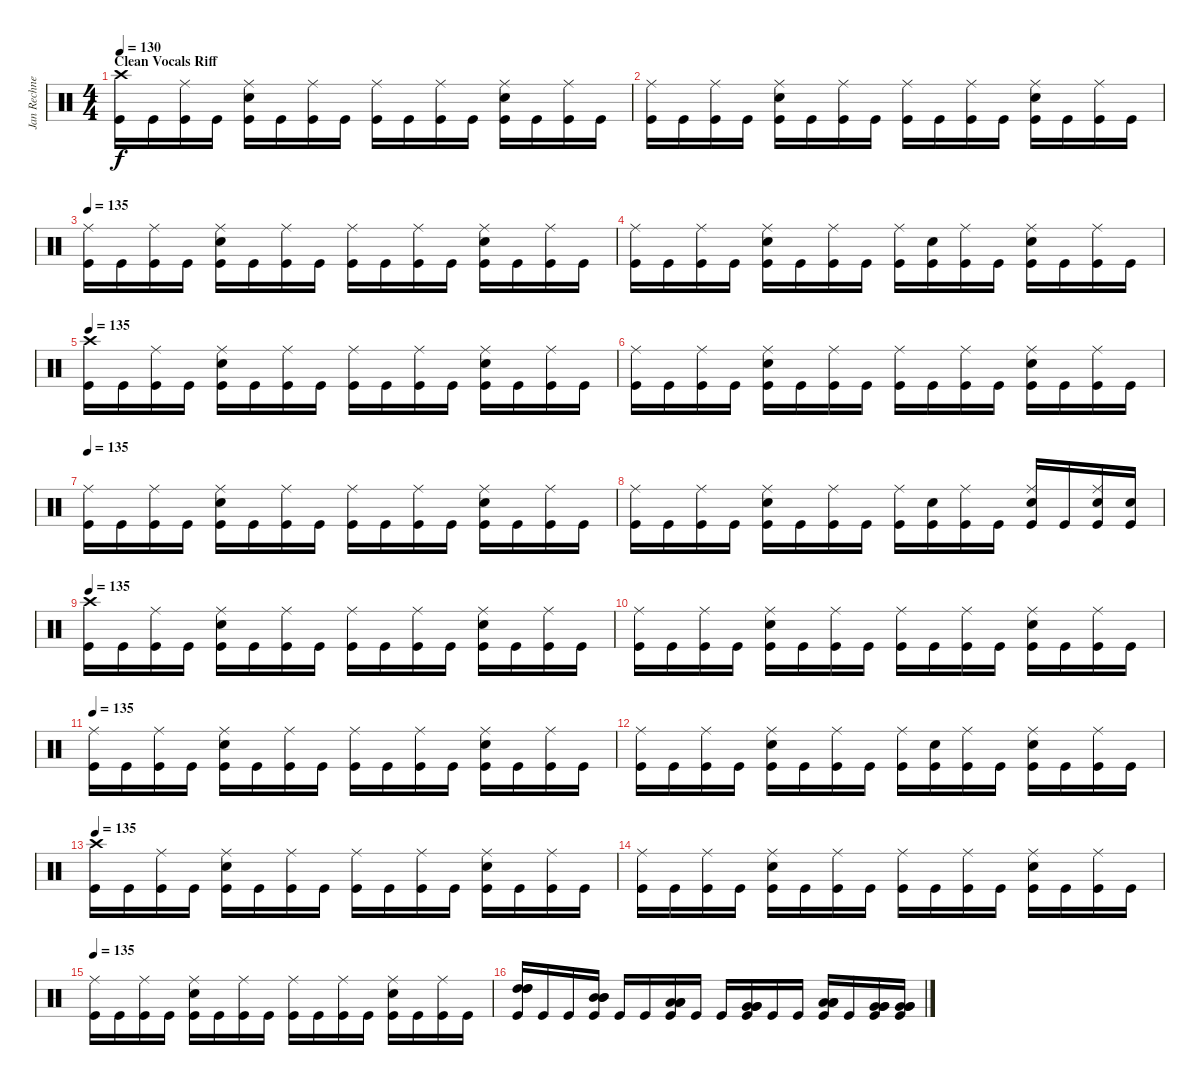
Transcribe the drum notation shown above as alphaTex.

\track ("Jan Rechnerger" "Jan Rechne") {instrument percussion}
\staff {score}
\articulation defaults
\ts (4 4)
\section ("" "Clean Vocals Riff")
\tempo 135
\tempo 130
\clef neutral
\ks c
("Kick (hit)" "Crash high (hit)").16{dy f} "Kick (hit)".16 ("Kick (hit)" "Ride (middle)").16 "Kick (hit)".16 ("Kick (hit)" "Snare (hit) 2" "Ride (middle)").16 "Kick (hit)".16 ("Kick (hit)" "Ride (middle)").16 "Kick (hit)".16 ("Kick (hit)" "Ride (middle)").16 "Kick (hit)".16 ("Kick (hit)" "Ride (middle)").16 "Kick (hit)".16 ("Kick (hit)" "Snare (hit) 2" "Ride (middle)").16 "Kick (hit)".16 ("Kick (hit)" "Ride (middle)").16 "Kick (hit)".16 |
("Kick (hit)" "Ride (middle)").16 "Kick (hit)".16 ("Kick (hit)" "Ride (middle)").16 "Kick (hit)".16 ("Kick (hit)" "Snare (hit) 2" "Ride (middle)").16 "Kick (hit)".16 ("Kick (hit)" "Ride (middle)").16 "Kick (hit)".16 ("Kick (hit)" "Ride (middle)").16 "Kick (hit)".16 ("Kick (hit)" "Ride (middle)").16 "Kick (hit)".16 ("Kick (hit)" "Snare (hit) 2" "Ride (middle)").16 "Kick (hit)".16 ("Kick (hit)" "Ride (middle)").16 "Kick (hit)".16 |
\tempo 135
("Kick (hit)" "Ride (middle)").16 "Kick (hit)".16 ("Kick (hit)" "Ride (middle)").16 "Kick (hit)".16 ("Kick (hit)" "Snare (hit) 2" "Ride (middle)").16 "Kick (hit)".16 ("Kick (hit)" "Ride (middle)").16 "Kick (hit)".16 ("Kick (hit)" "Ride (middle)").16 "Kick (hit)".16 ("Kick (hit)" "Ride (middle)").16 "Kick (hit)".16 ("Kick (hit)" "Snare (hit) 2" "Ride (middle)").16 "Kick (hit)".16 ("Kick (hit)" "Ride (middle)").16 "Kick (hit)".16 |
("Kick (hit)" "Ride (middle)").16 "Kick (hit)".16 ("Kick (hit)" "Ride (middle)").16 "Kick (hit)".16 ("Kick (hit)" "Snare (hit) 2" "Ride (middle)").16 "Kick (hit)".16 ("Kick (hit)" "Ride (middle)").16 "Kick (hit)".16 ("Kick (hit)" "Ride (middle)").16 ("Kick (hit)" "Snare (hit) 2").16 ("Kick (hit)" "Ride (middle)").16 "Kick (hit)".16 ("Kick (hit)" "Snare (hit) 2" "Ride (middle)").16 "Kick (hit)".16 ("Kick (hit)" "Ride (middle)").16 "Kick (hit)".16 |
\tempo 135
("Kick (hit)" "Crash high (hit)").16 "Kick (hit)".16 ("Kick (hit)" "Ride (middle)").16 "Kick (hit)".16 ("Kick (hit)" "Snare (hit) 2" "Ride (middle)").16 "Kick (hit)".16 ("Kick (hit)" "Ride (middle)").16 "Kick (hit)".16 ("Kick (hit)" "Ride (middle)").16 "Kick (hit)".16 ("Kick (hit)" "Ride (middle)").16 "Kick (hit)".16 ("Kick (hit)" "Snare (hit) 2" "Ride (middle)").16 "Kick (hit)".16 ("Kick (hit)" "Ride (middle)").16 "Kick (hit)".16 |
("Kick (hit)" "Ride (middle)").16 "Kick (hit)".16 ("Kick (hit)" "Ride (middle)").16 "Kick (hit)".16 ("Kick (hit)" "Snare (hit) 2" "Ride (middle)").16 "Kick (hit)".16 ("Kick (hit)" "Ride (middle)").16 "Kick (hit)".16 ("Kick (hit)" "Ride (middle)").16 "Kick (hit)".16 ("Kick (hit)" "Ride (middle)").16 "Kick (hit)".16 ("Kick (hit)" "Snare (hit) 2" "Ride (middle)").16 "Kick (hit)".16 ("Kick (hit)" "Ride (middle)").16 "Kick (hit)".16 |
\tempo 135
("Kick (hit)" "Ride (middle)").16 "Kick (hit)".16 ("Kick (hit)" "Ride (middle)").16 "Kick (hit)".16 ("Kick (hit)" "Snare (hit) 2" "Ride (middle)").16 "Kick (hit)".16 ("Kick (hit)" "Ride (middle)").16 "Kick (hit)".16 ("Kick (hit)" "Ride (middle)").16 "Kick (hit)".16 ("Kick (hit)" "Ride (middle)").16 "Kick (hit)".16 ("Kick (hit)" "Snare (hit) 2" "Ride (middle)").16 "Kick (hit)".16 ("Kick (hit)" "Ride (middle)").16 "Kick (hit)".16 |
("Kick (hit)" "Ride (middle)").16 "Kick (hit)".16 ("Kick (hit)" "Ride (middle)").16 "Kick (hit)".16 ("Kick (hit)" "Snare (hit) 2" "Ride (middle)").16 "Kick (hit)".16 ("Kick (hit)" "Ride (middle)").16 "Kick (hit)".16 ("Kick (hit)" "Ride (middle)").16 ("Kick (hit)" "Snare (hit) 2").16 ("Kick (hit)" "Ride (middle)").16 "Kick (hit)".16 ("Kick (hit)" "Snare (hit) 2" "Ride (middle)").16 "Kick (hit)".16 ("Kick (hit)" "Snare (hit) 2" "Ride (middle)").16 ("Kick (hit)" "Snare (hit) 2").16 |
\tempo 135
("Kick (hit)" "Crash high (hit)").16 "Kick (hit)".16 ("Kick (hit)" "Ride (middle)").16 "Kick (hit)".16 ("Kick (hit)" "Snare (hit) 2" "Ride (middle)").16 "Kick (hit)".16 ("Kick (hit)" "Ride (middle)").16 "Kick (hit)".16 ("Kick (hit)" "Ride (middle)").16 "Kick (hit)".16 ("Kick (hit)" "Ride (middle)").16 "Kick (hit)".16 ("Kick (hit)" "Snare (hit) 2" "Ride (middle)").16 "Kick (hit)".16 ("Kick (hit)" "Ride (middle)").16 "Kick (hit)".16 |
("Kick (hit)" "Ride (middle)").16 "Kick (hit)".16 ("Kick (hit)" "Ride (middle)").16 "Kick (hit)".16 ("Kick (hit)" "Snare (hit) 2" "Ride (middle)").16 "Kick (hit)".16 ("Kick (hit)" "Ride (middle)").16 "Kick (hit)".16 ("Kick (hit)" "Ride (middle)").16 "Kick (hit)".16 ("Kick (hit)" "Ride (middle)").16 "Kick (hit)".16 ("Kick (hit)" "Snare (hit) 2" "Ride (middle)").16 "Kick (hit)".16 ("Kick (hit)" "Ride (middle)").16 "Kick (hit)".16 |
\tempo 135
("Kick (hit)" "Ride (middle)").16 "Kick (hit)".16 ("Kick (hit)" "Ride (middle)").16 "Kick (hit)".16 ("Kick (hit)" "Snare (hit) 2" "Ride (middle)").16 "Kick (hit)".16 ("Kick (hit)" "Ride (middle)").16 "Kick (hit)".16 ("Kick (hit)" "Ride (middle)").16 "Kick (hit)".16 ("Kick (hit)" "Ride (middle)").16 "Kick (hit)".16 ("Kick (hit)" "Snare (hit) 2" "Ride (middle)").16 "Kick (hit)".16 ("Kick (hit)" "Ride (middle)").16 "Kick (hit)".16 |
("Kick (hit)" "Ride (middle)").16 "Kick (hit)".16 ("Kick (hit)" "Ride (middle)").16 "Kick (hit)".16 ("Kick (hit)" "Snare (hit) 2" "Ride (middle)").16 "Kick (hit)".16 ("Kick (hit)" "Ride (middle)").16 "Kick (hit)".16 ("Kick (hit)" "Ride (middle)").16 ("Kick (hit)" "Snare (hit) 2").16 ("Kick (hit)" "Ride (middle)").16 "Kick (hit)".16 ("Kick (hit)" "Snare (hit) 2" "Ride (middle)").16 "Kick (hit)".16 ("Kick (hit)" "Ride (middle)").16 "Kick (hit)".16 |
\tempo 135
("Kick (hit)" "Crash high (hit)").16 "Kick (hit)".16 ("Kick (hit)" "Ride (middle)").16 "Kick (hit)".16 ("Kick (hit)" "Snare (hit) 2" "Ride (middle)").16 "Kick (hit)".16 ("Kick (hit)" "Ride (middle)").16 "Kick (hit)".16 ("Kick (hit)" "Ride (middle)").16 "Kick (hit)".16 ("Kick (hit)" "Ride (middle)").16 "Kick (hit)".16 ("Kick (hit)" "Snare (hit) 2" "Ride (middle)").16 "Kick (hit)".16 ("Kick (hit)" "Ride (middle)").16 "Kick (hit)".16 |
("Kick (hit)" "Ride (middle)").16 "Kick (hit)".16 ("Kick (hit)" "Ride (middle)").16 "Kick (hit)".16 ("Kick (hit)" "Snare (hit) 2" "Ride (middle)").16 "Kick (hit)".16 ("Kick (hit)" "Ride (middle)").16 "Kick (hit)".16 ("Kick (hit)" "Ride (middle)").16 "Kick (hit)".16 ("Kick (hit)" "Ride (middle)").16 "Kick (hit)".16 ("Kick (hit)" "Snare (hit) 2" "Ride (middle)").16 "Kick (hit)".16 ("Kick (hit)" "Ride (middle)").16 "Kick (hit)".16 |
\tempo 135
("Kick (hit)" "Ride (middle)").16 "Kick (hit)".16 ("Kick (hit)" "Ride (middle)").16 "Kick (hit)".16 ("Kick (hit)" "Snare (hit) 2" "Ride (middle)").16 "Kick (hit)".16 ("Kick (hit)" "Ride (middle)").16 "Kick (hit)".16 ("Kick (hit)" "Ride (middle)").16 "Kick (hit)".16 ("Kick (hit)" "Ride (middle)").16 "Kick (hit)".16 ("Kick (hit)" "Snare (hit) 2" "Ride (middle)").16 "Kick (hit)".16 ("Kick (hit)" "Ride (middle)").16 "Kick (hit)".16 |
("Kick (hit)" "High Tom (hit)" "High Tom (hit)" "High Tom (hit)").16 "Kick (hit)".16 "Kick (hit)".16 ("Kick (hit)" "Mid Tom (hit)" "Mid Tom (hit)" "Mid Tom (hit)").16 "Kick (hit)".16 "Kick (hit)".16 ("Kick (hit)" "Low Tom (hit)" "Low Tom (hit)" "Low Tom (hit)").16 "Kick (hit)".16 "Kick (hit)".16 ("Kick (hit)" "Very Low Tom (hit)" "Very Low Tom (hit)" "Very Low Tom (hit)").16 "Kick (hit)".16 "Kick (hit)".16 ("Kick (hit)" "Low Floor Tom (hit)" "Low Floor Tom (hit)" "Low Floor Tom (hit)").16 "Kick (hit)".16 ("Kick (hit)" "Very Low Tom (hit)" "Very Low Tom (hit)" "Very Low Tom (hit)").16 ("Kick (hit)" "Very Low Tom (hit)" "Very Low Tom (hit)" "Very Low Tom (hit)").16
